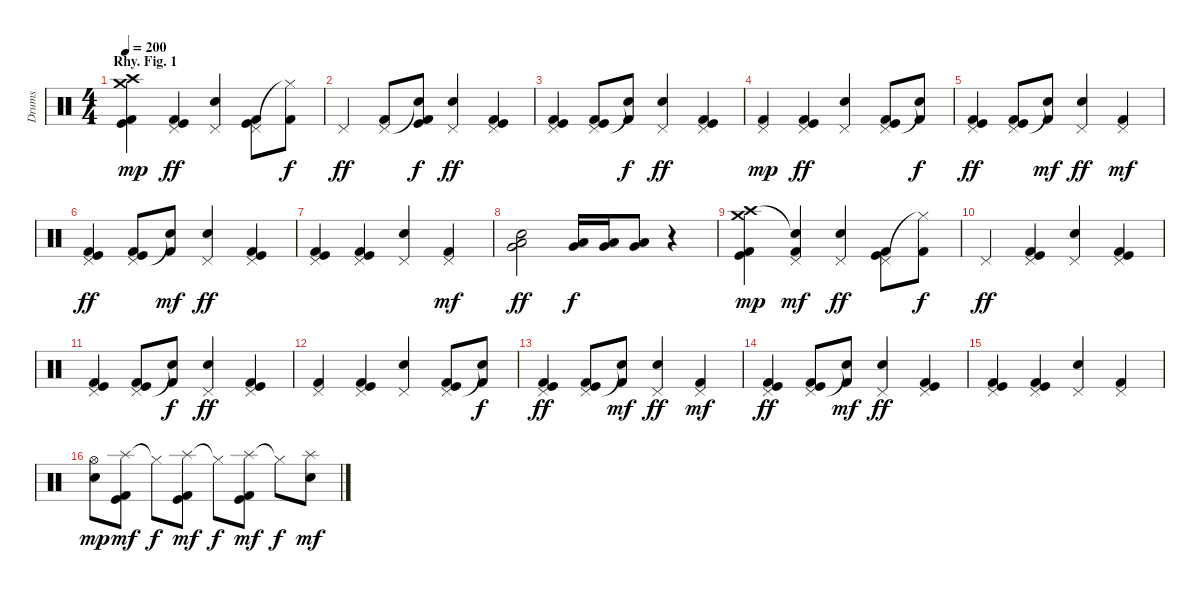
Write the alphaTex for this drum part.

\track ("Drums" "Drums") {instrument percussion}
\staff {score}
\articulation defaults
\ts (4 4)
\section ("" "Rhy. Fig. 1")
\tempo 200
\clef neutral
\ks c
("Crash high (hit)" "Crash medium (hit)" "Kick (hit)" "Kick (hit) 2").4{dy mp} ("Pedal Hi-Hat (hit)" "Kick (hit)" "Kick (hit) 2").4{dy ff} ("Pedal Hi-Hat (hit)" "Snare (hit) 2").4 ("Pedal Hi-Hat (hit)" "Kick (hit)" "Kick (hit) 2").8 ("Hi-Hat (closed)"{t} "Kick (hit) 2").8{dy f} |
"Pedal Hi-Hat (hit)".4{dy ff} ("Pedal Hi-Hat (hit)" "Kick (hit) 2").8 ("Snare (hit)"{t} "Kick (hit)" "Kick (hit) 2").8{dy f} ("Pedal Hi-Hat (hit)" "Snare (hit) 2").4{dy ff} ("Pedal Hi-Hat (hit)" "Kick (hit)" "Kick (hit) 2").4 |
("Pedal Hi-Hat (hit)" "Kick (hit)" "Kick (hit) 2").4 ("Pedal Hi-Hat (hit)" "Kick (hit)" "Kick (hit) 2").8 ("Snare (hit)"{t} "Kick (hit) 2").8{dy f} ("Pedal Hi-Hat (hit)" "Snare (hit) 2").4{dy ff} ("Pedal Hi-Hat (hit)" "Kick (hit)" "Kick (hit) 2").4 |
("Pedal Hi-Hat (hit)" "Kick (hit) 2").4{dy mp} ("Pedal Hi-Hat (hit)" "Kick (hit)" "Kick (hit) 2").4{dy ff} ("Pedal Hi-Hat (hit)" "Snare (hit) 2").4 ("Pedal Hi-Hat (hit)" "Kick (hit)" "Kick (hit) 2").8 ("Snare (hit)"{t} "Kick (hit) 2").8{dy f} |
("Pedal Hi-Hat (hit)" "Kick (hit)" "Kick (hit) 2").4{dy ff} ("Pedal Hi-Hat (hit)" "Kick (hit)" "Kick (hit) 2").8 ("Snare (hit)"{t} "Kick (hit) 2").8{dy mf} ("Pedal Hi-Hat (hit)" "Snare (hit) 2").4{dy ff} ("Pedal Hi-Hat (hit)" "Kick (hit) 2").4{dy mf} |
("Pedal Hi-Hat (hit)" "Kick (hit)" "Kick (hit) 2").4{dy ff} ("Pedal Hi-Hat (hit)" "Kick (hit)" "Kick (hit) 2").8 ("Snare (hit)"{t} "Kick (hit) 2").8{dy mf} ("Pedal Hi-Hat (hit)" "Snare (hit) 2").4{dy ff} ("Pedal Hi-Hat (hit)" "Kick (hit)" "Kick (hit) 2").4 |
("Pedal Hi-Hat (hit)" "Kick (hit)" "Kick (hit) 2").4 ("Pedal Hi-Hat (hit)" "Kick (hit)" "Kick (hit) 2").4 ("Pedal Hi-Hat (hit)" "Snare (hit) 2").4 ("Pedal Hi-Hat (hit)" "Kick (hit) 2").4{dy mf} |
("Snare (hit) 2" "Very Low Tom (hit)" "Low Floor Tom (hit)").2{dy ff} ("Very Low Tom (hit)" "Low Floor Tom (hit)").16{dy f} ("Very Low Tom (hit)" "Low Floor Tom (hit)").16 ("Very Low Tom (hit)" "Low Floor Tom (hit)").8 r.4 |
("Crash high (hit)" "Crash medium (hit)" "Kick (hit)" "Kick (hit) 2").4{dy mp} ("Snare (hit)"{t} "Pedal Hi-Hat (hit)" "Kick (hit) 2").4{dy mf} ("Pedal Hi-Hat (hit)" "Snare (hit) 2").4{dy ff} ("Pedal Hi-Hat (hit)" "Kick (hit)" "Kick (hit) 2").8 ("Hi-Hat (closed)"{t} "Kick (hit) 2").8{dy f} |
"Pedal Hi-Hat (hit)".4{dy ff} ("Pedal Hi-Hat (hit)" "Kick (hit)" "Kick (hit) 2").4 ("Pedal Hi-Hat (hit)" "Snare (hit) 2").4 ("Pedal Hi-Hat (hit)" "Kick (hit)" "Kick (hit) 2").4 |
("Pedal Hi-Hat (hit)" "Kick (hit)" "Kick (hit) 2").4 ("Pedal Hi-Hat (hit)" "Kick (hit)" "Kick (hit) 2").8 ("Snare (hit)"{t} "Kick (hit) 2").8{dy f} ("Pedal Hi-Hat (hit)" "Snare (hit) 2").4{dy ff} ("Pedal Hi-Hat (hit)" "Kick (hit)" "Kick (hit) 2").4 |
("Pedal Hi-Hat (hit)" "Kick (hit) 2").4 ("Pedal Hi-Hat (hit)" "Kick (hit)" "Kick (hit) 2").4 ("Pedal Hi-Hat (hit)" "Snare (hit) 2").4 ("Pedal Hi-Hat (hit)" "Kick (hit)" "Kick (hit) 2").8 ("Snare (hit)"{t} "Kick (hit) 2").8{dy f} |
("Pedal Hi-Hat (hit)" "Kick (hit)" "Kick (hit) 2").4{dy ff} ("Pedal Hi-Hat (hit)" "Kick (hit)" "Kick (hit) 2").8 ("Snare (hit)"{t} "Kick (hit) 2").8{dy mf} ("Pedal Hi-Hat (hit)" "Snare (hit) 2").4{dy ff} ("Pedal Hi-Hat (hit)" "Kick (hit) 2").4{dy mf} |
("Pedal Hi-Hat (hit)" "Kick (hit)" "Kick (hit) 2").4{dy ff} ("Pedal Hi-Hat (hit)" "Kick (hit)" "Kick (hit) 2").8 ("Snare (hit)"{t} "Kick (hit) 2").8{dy mf} ("Pedal Hi-Hat (hit)" "Snare (hit) 2").4{dy ff} ("Pedal Hi-Hat (hit)" "Kick (hit)" "Kick (hit) 2").4 |
("Pedal Hi-Hat (hit)" "Kick (hit)" "Kick (hit) 2").4 ("Pedal Hi-Hat (hit)" "Kick (hit)" "Kick (hit) 2").4 ("Pedal Hi-Hat (hit)" "Snare (hit) 2").4 ("Pedal Hi-Hat (hit)" "Kick (hit) 2").4 |
("Hi-Hat (open)" "Snare (hit) 2").8{dy mp} ("Splash (hit)" "Kick (hit)" "Kick (hit) 2").8{dy mf} "Hi-Hat (closed)"{t}.8{dy f} ("Splash (hit)" "Kick (hit)" "Kick (hit) 2").8{dy mf} "Hi-Hat (closed)"{t}.8{dy f} ("Splash (hit)" "Kick (hit)" "Kick (hit) 2").8{dy mf} "Hi-Hat (closed)"{t}.8{dy f} ("Splash (hit)" "Snare (hit) 2").8{dy mf}
